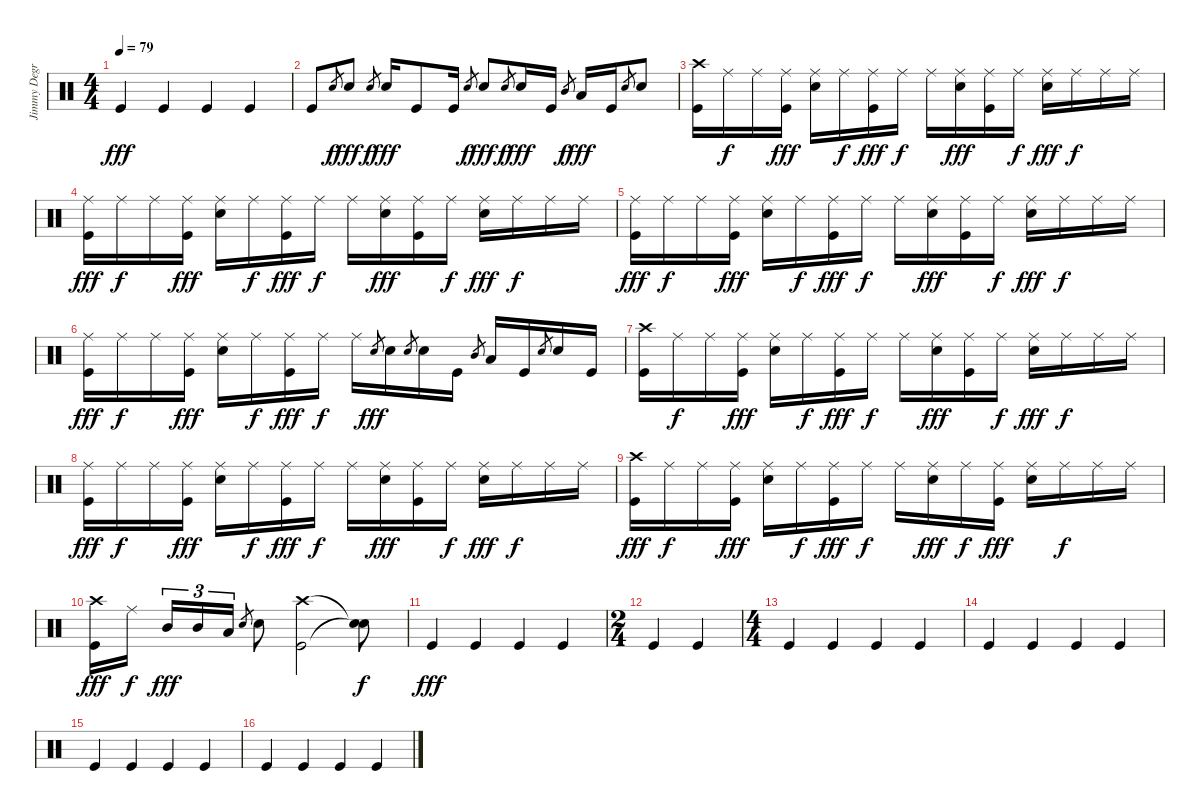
\track ("Jimmy Degrasso" "Jimmy Degr") {instrument percussion}
\staff {score}
\articulation defaults
\ts (4 4)
\tempo 79
\clef neutral
\ks c "Kick (hit)".4{dy fff} "Kick (hit)".4 "Kick (hit)".4 "Kick (hit)".4
|
"Kick (hit)".8 "Electric Snare (hit)".8{gr dy f} "Electric Snare (hit)".8{dy fff} "Electric Snare (hit)".8{gr dy f} "Electric Snare (hit)".16{dy fff} "Kick (hit)".8 "Kick (hit)".16 "Electric Snare (hit)".8{gr dy f} "Electric Snare (hit)".8{dy fff} "Electric Snare (hit)".8{gr dy f} "Electric Snare (hit)".16{dy fff} "Kick (hit)".16 "Mid Tom (hit)".8{gr dy f} "Low Tom (hit)".16{dy fff} "Kick (hit)".16 "Electric Snare (hit)".8{gr} "Electric Snare (hit)".8 |
("Kick (hit)" "Crash high (hit)").16 "Ride (middle)".16{dy f} "Ride (middle)".16 ("Kick (hit)" "Ride (middle)").16{dy fff} ("Electric Snare (hit)" "Ride (middle)").16 "Ride (middle)".16{dy f} ("Kick (hit)" "Ride (middle)").16{dy fff} "Ride (middle)".16{dy f} "Ride (middle)".16 ("Electric Snare (hit)" "Ride (middle)").16{dy fff} ("Kick (hit)" "Ride (middle)").16 "Ride (middle)".16{dy f} ("Electric Snare (hit)" "Ride (middle)").16{dy fff} "Ride (middle)".16{dy f} "Ride (middle)".16 "Ride (middle)".16 |
("Kick (hit)" "Ride (middle)").16{dy fff} "Ride (middle)".16{dy f} "Ride (middle)".16 ("Kick (hit)" "Ride (middle)").16{dy fff} ("Electric Snare (hit)" "Ride (middle)").16 "Ride (middle)".16{dy f} ("Kick (hit)" "Ride (middle)").16{dy fff} "Ride (middle)".16{dy f} "Ride (middle)".16 ("Electric Snare (hit)" "Ride (middle)").16{dy fff} ("Kick (hit)" "Ride (middle)").16 "Ride (middle)".16{dy f} ("Electric Snare (hit)" "Ride (middle)").16{dy fff} "Ride (middle)".16{dy f} "Ride (middle)".16 "Ride (middle)".16 |
("Kick (hit)" "Ride (middle)").16{dy fff} "Ride (middle)".16{dy f} "Ride (middle)".16 ("Kick (hit)" "Ride (middle)").16{dy fff} ("Electric Snare (hit)" "Ride (middle)").16 "Ride (middle)".16{dy f} ("Kick (hit)" "Ride (middle)").16{dy fff} "Ride (middle)".16{dy f} "Ride (middle)".16 ("Electric Snare (hit)" "Ride (middle)").16{dy fff} ("Kick (hit)" "Ride (middle)").16 "Ride (middle)".16{dy f} ("Electric Snare (hit)" "Ride (middle)").16{dy fff} "Ride (middle)".16{dy f} "Ride (middle)".16 "Ride (middle)".16 |
("Kick (hit)" "Ride (middle)").16{dy fff} "Ride (middle)".16{dy f} "Ride (middle)".16 ("Kick (hit)" "Ride (middle)").16{dy fff} ("Electric Snare (hit)" "Ride (middle)").16 "Ride (middle)".16{dy f} ("Kick (hit)" "Ride (middle)").16{dy fff} "Ride (middle)".16{dy f} "Ride (middle)".16 "Electric Snare (hit)".8{gr dy fff} "Electric Snare (hit)".16 "Electric Snare (hit)".8{gr} "Electric Snare (hit)".16 "Kick (hit)".16 "Mid Tom (hit)".8{gr} "Low Tom (hit)".16 "Kick (hit)".16 "Electric Snare (hit)".8{gr} "Electric Snare (hit)".16 "Kick (hit)".16 |
("Kick (hit)" "Crash high (hit)").16 "Ride (middle)".16{dy f} "Ride (middle)".16 ("Kick (hit)" "Ride (middle)").16{dy fff} ("Electric Snare (hit)" "Ride (middle)").16 "Ride (middle)".16{dy f} ("Kick (hit)" "Ride (middle)").16{dy fff} "Ride (middle)".16{dy f} "Ride (middle)".16 ("Electric Snare (hit)" "Ride (middle)").16{dy fff} ("Kick (hit)" "Ride (middle)").16 "Ride (middle)".16{dy f} ("Electric Snare (hit)" "Ride (middle)").16{dy fff} "Ride (middle)".16{dy f} "Ride (middle)".16 "Ride (middle)".16 |
("Kick (hit)" "Ride (middle)").16{dy fff} "Ride (middle)".16{dy f} "Ride (middle)".16 ("Kick (hit)" "Ride (middle)").16{dy fff} ("Electric Snare (hit)" "Ride (middle)").16 "Ride (middle)".16{dy f} ("Kick (hit)" "Ride (middle)").16{dy fff} "Ride (middle)".16{dy f} "Ride (middle)".16 ("Electric Snare (hit)" "Ride (middle)").16{dy fff} ("Kick (hit)" "Ride (middle)").16 "Ride (middle)".16{dy f} ("Electric Snare (hit)" "Ride (middle)").16{dy fff} "Ride (middle)".16{dy f} "Ride (middle)".16 "Ride (middle)".16 |
("Kick (hit)" "Crash high (hit)").16{dy fff} "Ride (middle)".16{dy f} "Ride (middle)".16 ("Kick (hit)" "Ride (middle)").16{dy fff} ("Electric Snare (hit)" "Ride (middle)").16 "Ride (middle)".16{dy f} ("Kick (hit)" "Ride (middle)").16{dy fff} "Ride (middle)".16{dy f} "Ride (middle)".16 ("Electric Snare (hit)" "Ride (middle)").16{dy fff} "Ride (middle)".16{dy f} ("Kick (hit)" "Ride (middle)").16{dy fff} ("Electric Snare (hit)" "Ride (middle)").16 "Ride (middle)".16{dy f} "Ride (middle)".16 "Ride (middle)".16 |
("Kick (hit)" "Crash high (hit)").16{dy fff} "Ride (middle)".16{dy f} "Mid Tom (hit)".16{tu (3 2) dy fff} "Mid Tom (hit)".16{tu (3 2)} "Low Tom (hit)".16{tu (3 2)} "Electric Snare (hit)".8{gr} "Electric Snare (hit)".8 ("Kick (hit)" "Crash high (hit)").2 ("Snare (hit)"{t} "Snare (hit)"{t}).8{dy f} |
"Kick (hit)".4{dy fff} "Kick (hit)".4 "Kick (hit)".4 "Kick (hit)".4 |
\ts (2 4)
"Kick (hit)".4 "Kick (hit)".4 |
\ts (4 4)
"Kick (hit)".4 "Kick (hit)".4 "Kick (hit)".4 "Kick (hit)".4 |
"Kick (hit)".4 "Kick (hit)".4 "Kick (hit)".4 "Kick (hit)".4 |
"Kick (hit)".4 "Kick (hit)".4 "Kick (hit)".4 "Kick (hit)".4 |
"Kick (hit)".4 "Kick (hit)".4 "Kick (hit)".4 "Kick (hit)".4
